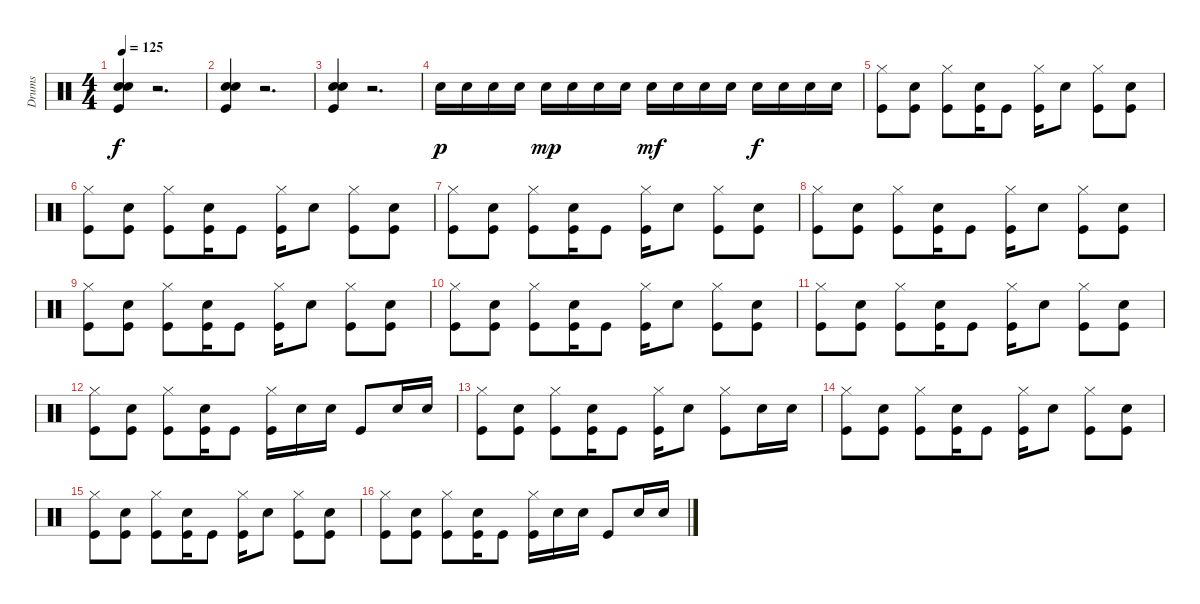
\track ("Drums" "Drums") {instrument percussion}
\staff {score}
\articulation defaults
\ts (4 4)
\tempo 125
\clef neutral
\ks c
("Snare (hit) 2" "Snare (hit) 2" "Kick (hit)").4{dy f} r.2{d} |
("Snare (hit) 2" "Snare (hit) 2" "Kick (hit)").4 r.2{d} |
("Snare (hit) 2" "Snare (hit) 2" "Kick (hit)").4 r.2{d} |
"Snare (hit) 2".16{dy p} "Snare (hit) 2".16 "Snare (hit) 2".16 "Snare (hit) 2".16 "Snare (hit) 2".16{dy mp} "Snare (hit) 2".16 "Snare (hit) 2".16 "Snare (hit) 2".16 "Snare (hit) 2".16{dy mf} "Snare (hit) 2".16 "Snare (hit) 2".16 "Snare (hit) 2".16 "Snare (hit) 2".16{dy f} "Snare (hit) 2".16 "Snare (hit) 2".16 "Snare (hit) 2".16 |
("Hi-Hat (closed)" "Kick (hit)").8 ("Snare (hit) 2" "Kick (hit)").8 ("Hi-Hat (closed)" "Kick (hit)").8 ("Snare (hit) 2" "Kick (hit)").16 "Kick (hit)".8 ("Hi-Hat (closed)" "Kick (hit)").16 "Snare (hit) 2".8 ("Hi-Hat (closed)" "Kick (hit)").8 ("Snare (hit) 2" "Kick (hit)").8 |
("Hi-Hat (closed)" "Kick (hit)").8 ("Snare (hit) 2" "Kick (hit)").8 ("Hi-Hat (closed)" "Kick (hit)").8 ("Snare (hit) 2" "Kick (hit)").16 "Kick (hit)".8 ("Hi-Hat (closed)" "Kick (hit)").16 "Snare (hit) 2".8 ("Hi-Hat (closed)" "Kick (hit)").8 ("Snare (hit) 2" "Kick (hit)").8 |
("Hi-Hat (closed)" "Kick (hit)").8 ("Snare (hit) 2" "Kick (hit)").8 ("Hi-Hat (closed)" "Kick (hit)").8 ("Snare (hit) 2" "Kick (hit)").16 "Kick (hit)".8 ("Hi-Hat (closed)" "Kick (hit)").16 "Snare (hit) 2".8 ("Hi-Hat (closed)" "Kick (hit)").8 ("Snare (hit) 2" "Kick (hit)").8 |
("Hi-Hat (closed)" "Kick (hit)").8 ("Snare (hit) 2" "Kick (hit)").8 ("Hi-Hat (closed)" "Kick (hit)").8 ("Snare (hit) 2" "Kick (hit)").16 "Kick (hit)".8 ("Hi-Hat (closed)" "Kick (hit)").16 "Snare (hit) 2".8 ("Hi-Hat (closed)" "Kick (hit)").8 ("Snare (hit) 2" "Kick (hit)").8 |
("Hi-Hat (closed)" "Kick (hit)").8 ("Snare (hit) 2" "Kick (hit)").8 ("Hi-Hat (closed)" "Kick (hit)").8 ("Snare (hit) 2" "Kick (hit)").16 "Kick (hit)".8 ("Hi-Hat (closed)" "Kick (hit)").16 "Snare (hit) 2".8 ("Hi-Hat (closed)" "Kick (hit)").8 ("Snare (hit) 2" "Kick (hit)").8 |
("Hi-Hat (closed)" "Kick (hit)").8 ("Snare (hit) 2" "Kick (hit)").8 ("Hi-Hat (closed)" "Kick (hit)").8 ("Snare (hit) 2" "Kick (hit)").16 "Kick (hit)".8 ("Hi-Hat (closed)" "Kick (hit)").16 "Snare (hit) 2".8 ("Hi-Hat (closed)" "Kick (hit)").8 ("Snare (hit) 2" "Kick (hit)").8 |
("Hi-Hat (closed)" "Kick (hit)").8 ("Snare (hit) 2" "Kick (hit)").8 ("Hi-Hat (closed)" "Kick (hit)").8 ("Snare (hit) 2" "Kick (hit)").16 "Kick (hit)".8 ("Hi-Hat (closed)" "Kick (hit)").16 "Snare (hit) 2".8 ("Hi-Hat (closed)" "Kick (hit)").8 ("Snare (hit) 2" "Kick (hit)").8 |
("Hi-Hat (closed)" "Kick (hit)").8 ("Snare (hit) 2" "Kick (hit)").8 ("Hi-Hat (closed)" "Kick (hit)").8 ("Snare (hit) 2" "Kick (hit)").16 "Kick (hit)".8 ("Hi-Hat (closed)" "Kick (hit)").16 "Snare (hit) 2".16 "Snare (hit) 2".16 "Kick (hit)".8 "Snare (hit) 2".16 "Snare (hit) 2".16 |
("Hi-Hat (closed)" "Kick (hit)").8 ("Snare (hit) 2" "Kick (hit)").8 ("Hi-Hat (closed)" "Kick (hit)").8 ("Snare (hit) 2" "Kick (hit)").16 "Kick (hit)".8 ("Hi-Hat (closed)" "Kick (hit)").16 "Snare (hit) 2".8 ("Hi-Hat (closed)" "Kick (hit)").8 "Snare (hit) 2".16 "Snare (hit) 2".16 |
("Hi-Hat (closed)" "Kick (hit)").8 ("Snare (hit) 2" "Kick (hit)").8 ("Hi-Hat (closed)" "Kick (hit)").8 ("Snare (hit) 2" "Kick (hit)").16 "Kick (hit)".8 ("Hi-Hat (closed)" "Kick (hit)").16 "Snare (hit) 2".8 ("Hi-Hat (closed)" "Kick (hit)").8 ("Snare (hit) 2" "Kick (hit)").8 |
("Hi-Hat (closed)" "Kick (hit)").8 ("Snare (hit) 2" "Kick (hit)").8 ("Hi-Hat (closed)" "Kick (hit)").8 ("Snare (hit) 2" "Kick (hit)").16 "Kick (hit)".8 ("Hi-Hat (closed)" "Kick (hit)").16 "Snare (hit) 2".8 ("Hi-Hat (closed)" "Kick (hit)").8 ("Snare (hit) 2" "Kick (hit)").8 |
("Hi-Hat (closed)" "Kick (hit)").8 ("Snare (hit) 2" "Kick (hit)").8 ("Hi-Hat (closed)" "Kick (hit)").8 ("Snare (hit) 2" "Kick (hit)").16 "Kick (hit)".8 ("Hi-Hat (closed)" "Kick (hit)").16 "Snare (hit) 2".16 "Snare (hit) 2".16 "Kick (hit)".8 "Snare (hit) 2".16 "Snare (hit) 2".16
